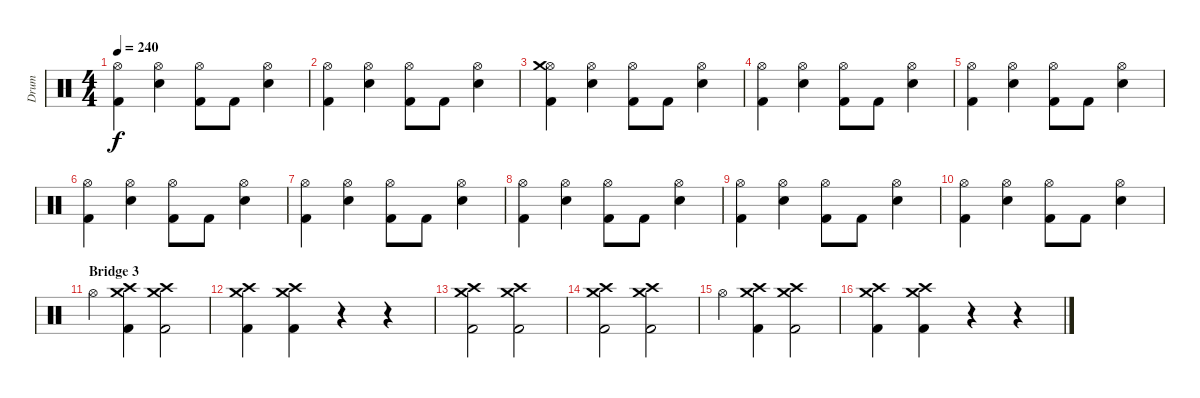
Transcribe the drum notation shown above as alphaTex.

\track ("Drum" "Drum") {instrument percussion}
\staff {score}
\articulation defaults
\ts (4 4)
\tempo 240
\clef neutral
\ks c
("Hi-Hat (open)" "Kick (hit) 2").4{dy f} ("Hi-Hat (open)" "Electric Snare (hit)").4 ("Hi-Hat (open)" "Kick (hit) 2").8 "Kick (hit) 2".8 ("Hi-Hat (open)" "Electric Snare (hit)").4 |
("Hi-Hat (open)" "Kick (hit) 2").4 ("Hi-Hat (open)" "Electric Snare (hit)").4 ("Hi-Hat (open)" "Kick (hit) 2").8 "Kick (hit) 2".8 ("Hi-Hat (open)" "Electric Snare (hit)").4 |
("Hi-Hat (open)" "Kick (hit) 2" "Crash medium (hit)").4 ("Hi-Hat (open)" "Electric Snare (hit)").4 ("Hi-Hat (open)" "Kick (hit) 2").8 "Kick (hit) 2".8 ("Hi-Hat (open)" "Electric Snare (hit)").4 |
("Hi-Hat (open)" "Kick (hit) 2").4 ("Hi-Hat (open)" "Electric Snare (hit)").4 ("Hi-Hat (open)" "Kick (hit) 2").8 "Kick (hit) 2".8 ("Hi-Hat (open)" "Electric Snare (hit)").4 |
("Hi-Hat (open)" "Kick (hit) 2").4 ("Hi-Hat (open)" "Electric Snare (hit)").4 ("Hi-Hat (open)" "Kick (hit) 2").8 "Kick (hit) 2".8 ("Hi-Hat (open)" "Electric Snare (hit)").4 |
("Hi-Hat (open)" "Kick (hit) 2").4 ("Hi-Hat (open)" "Electric Snare (hit)").4 ("Hi-Hat (open)" "Kick (hit) 2").8 "Kick (hit) 2".8 ("Hi-Hat (open)" "Electric Snare (hit)").4 |
("Hi-Hat (open)" "Kick (hit) 2").4 ("Hi-Hat (open)" "Electric Snare (hit)").4 ("Hi-Hat (open)" "Kick (hit) 2").8 "Kick (hit) 2".8 ("Hi-Hat (open)" "Electric Snare (hit)").4 |
("Hi-Hat (open)" "Kick (hit) 2").4 ("Hi-Hat (open)" "Electric Snare (hit)").4 ("Hi-Hat (open)" "Kick (hit) 2").8 "Kick (hit) 2".8 ("Hi-Hat (open)" "Electric Snare (hit)").4 |
("Hi-Hat (open)" "Kick (hit) 2").4 ("Hi-Hat (open)" "Electric Snare (hit)").4 ("Hi-Hat (open)" "Kick (hit) 2").8 "Kick (hit) 2".8 ("Hi-Hat (open)" "Electric Snare (hit)").4 |
("Hi-Hat (open)" "Kick (hit) 2").4 ("Hi-Hat (open)" "Electric Snare (hit)").4 ("Hi-Hat (open)" "Kick (hit) 2").8 "Kick (hit) 2".8 ("Hi-Hat (open)" "Electric Snare (hit)").4 |
\section ("" "Bridge 3")
"Hi-Hat (open)".4 ("Crash high (hit)" "Kick (hit) 2" "Crash medium (hit)").4 ("Crash high (hit)" "Kick (hit) 2" "Crash medium (hit)").2 |
("Crash high (hit)" "Kick (hit) 2" "Crash medium (hit)").4 ("Crash high (hit)" "Kick (hit) 2" "Crash medium (hit)").4 r.4 r.4 |
("Crash high (hit)" "Kick (hit) 2" "Crash medium (hit)").2 ("Crash high (hit)" "Kick (hit) 2" "Crash medium (hit)").2 |
("Crash high (hit)" "Kick (hit) 2" "Crash medium (hit)").2 ("Crash high (hit)" "Kick (hit) 2" "Crash medium (hit)").2 |
"Hi-Hat (open)".4 ("Crash high (hit)" "Kick (hit) 2" "Crash medium (hit)").4 ("Crash high (hit)" "Kick (hit) 2" "Crash medium (hit)").2 |
("Crash high (hit)" "Kick (hit) 2" "Crash medium (hit)").4 ("Crash high (hit)" "Kick (hit) 2" "Crash medium (hit)").4 r.4 r.4
